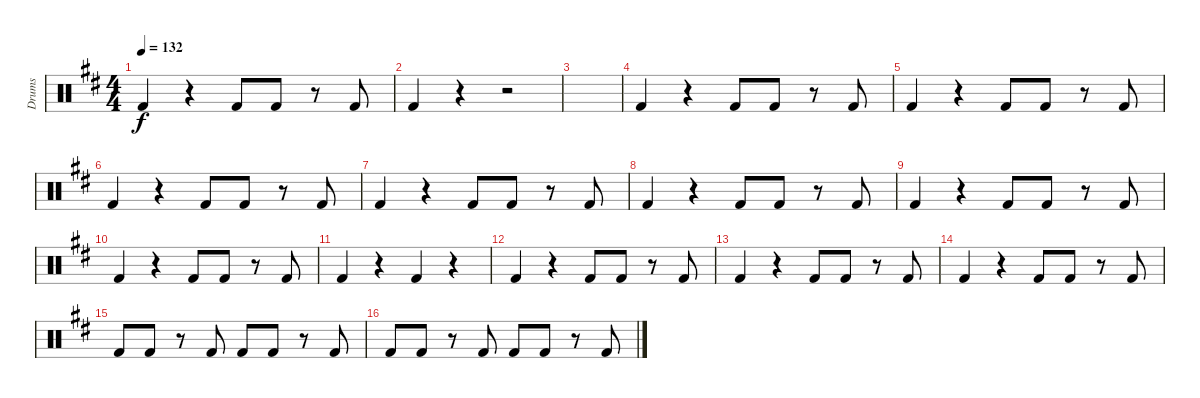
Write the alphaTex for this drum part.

\track ("Drums" "Drums") {instrument percussion}
\staff {score}
\articulation defaults
\ts (4 4)
\tempo 132
\clef neutral
\ks d "Kick (hit) 2".4{dy f}
r.4 "Kick (hit) 2".8 "Kick (hit) 2".8 r.8 "Kick (hit) 2".8 |
"Kick (hit) 2".4 r.4 r.2 |
|
"Kick (hit) 2".4 r.4 "Kick (hit) 2".8 "Kick (hit) 2".8 r.8 "Kick (hit) 2".8 |
"Kick (hit) 2".4 r.4 "Kick (hit) 2".8 "Kick (hit) 2".8 r.8 "Kick (hit) 2".8 |
"Kick (hit) 2".4 r.4 "Kick (hit) 2".8 "Kick (hit) 2".8 r.8 "Kick (hit) 2".8 |
"Kick (hit) 2".4 r.4 "Kick (hit) 2".8 "Kick (hit) 2".8 r.8 "Kick (hit) 2".8 |
"Kick (hit) 2".4 r.4 "Kick (hit) 2".8 "Kick (hit) 2".8 r.8 "Kick (hit) 2".8 |
"Kick (hit) 2".4 r.4 "Kick (hit) 2".8 "Kick (hit) 2".8 r.8 "Kick (hit) 2".8 |
"Kick (hit) 2".4 r.4 "Kick (hit) 2".8 "Kick (hit) 2".8 r.8 "Kick (hit) 2".8 |
"Kick (hit) 2".4 r.4 "Kick (hit) 2".4 r.4 |
"Kick (hit) 2".4 r.4 "Kick (hit) 2".8 "Kick (hit) 2".8 r.8 "Kick (hit) 2".8 |
"Kick (hit) 2".4 r.4 "Kick (hit) 2".8 "Kick (hit) 2".8 r.8 "Kick (hit) 2".8 |
"Kick (hit) 2".4 r.4 "Kick (hit) 2".8 "Kick (hit) 2".8 r.8 "Kick (hit) 2".8 |
"Kick (hit) 2".8 "Kick (hit) 2".8 r.8 "Kick (hit) 2".8 "Kick (hit) 2".8 "Kick (hit) 2".8 r.8 "Kick (hit) 2".8 |
"Kick (hit) 2".8 "Kick (hit) 2".8 r.8 "Kick (hit) 2".8 "Kick (hit) 2".8 "Kick (hit) 2".8 r.8 "Kick (hit) 2".8
